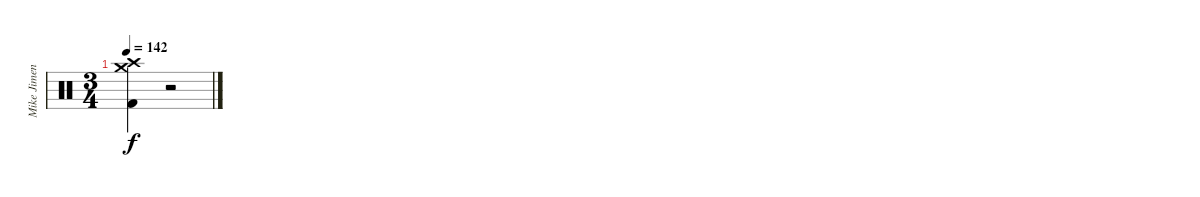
\track ("Mike Jimenez" "Mike Jimen") {instrument percussion}
\staff {score}
\articulation defaults
\ts (3 4)
\tempo 142
\clef neutral
\ks c
("Crash high (hit)" "Crash medium (hit)" "Kick (hit) 2").4{dy f} r.2
